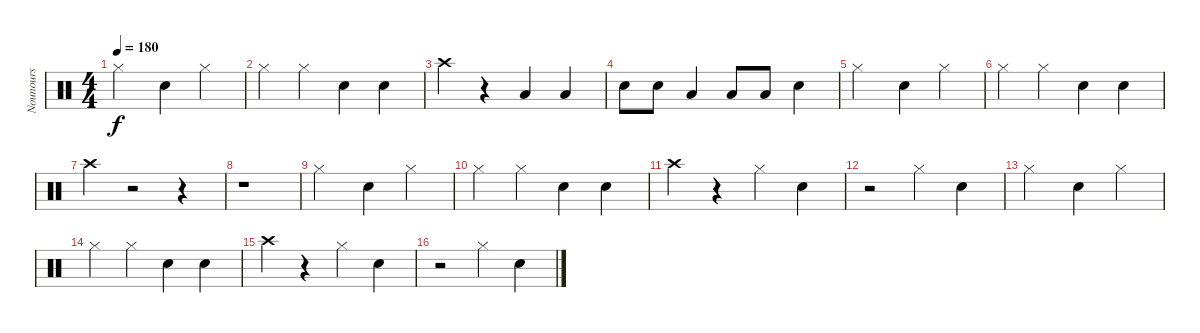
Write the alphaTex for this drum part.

\track ("Nounours" "Nounours") {instrument percussion}
\staff {score}
\articulation defaults
\ts (4 4)
\tempo 180
\clef neutral
\ks c "Hi-Hat (closed)".2{dy f} "Snare (hit) 2".4 "Hi-Hat (closed)".4
|
"Hi-Hat (closed)".4 "Hi-Hat (closed)".4 "Snare (hit) 2".4 "Snare (hit) 2".4 |
"Crash high (hit)".4 r.4 "Low Tom (hit)".4 "Low Tom (hit)".4 |
"Snare (hit) 2".8 "Snare (hit) 2".8 "Low Tom (hit)".4 "Low Tom (hit)".8 "Low Tom (hit)".8 "Snare (hit) 2".4 |
"Hi-Hat (closed)".2 "Snare (hit) 2".4 "Hi-Hat (closed)".4 |
"Hi-Hat (closed)".4 "Hi-Hat (closed)".4 "Snare (hit) 2".4 "Snare (hit) 2".4 |
"Crash high (hit)".4 r.2 r.4 |
r.1 |
"Hi-Hat (closed)".2 "Snare (hit) 2".4 "Hi-Hat (closed)".4 |
"Hi-Hat (closed)".4 "Hi-Hat (closed)".4 "Snare (hit) 2".4 "Snare (hit) 2".4 |
"Crash high (hit)".4 r.4 "Hi-Hat (closed)".4 "Snare (hit) 2".4 |
r.2 "Hi-Hat (closed)".4 "Snare (hit) 2".4 |
"Hi-Hat (closed)".2 "Snare (hit) 2".4 "Hi-Hat (closed)".4 |
"Hi-Hat (closed)".4 "Hi-Hat (closed)".4 "Snare (hit) 2".4 "Snare (hit) 2".4 |
"Crash high (hit)".4 r.4 "Hi-Hat (closed)".4 "Snare (hit) 2".4 |
r.2 "Hi-Hat (closed)".4 "Snare (hit) 2".4
